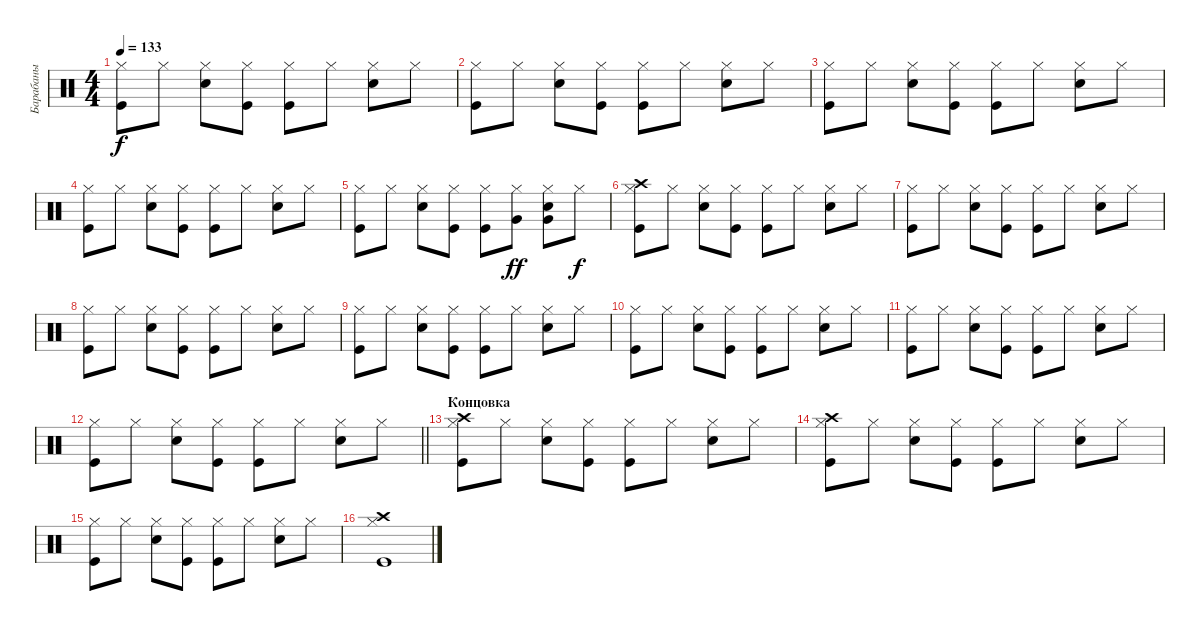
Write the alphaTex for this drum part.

\track ("Барабаны" "Барабаны") {instrument percussion}
\staff {score}
\articulation defaults
\ts (4 4)
\tempo 133
\clef neutral
\ks c
("Kick (hit)" "Hi-Hat (closed)").8{dy f} "Hi-Hat (closed)".8 ("Snare (hit) 2" "Hi-Hat (closed)").8 ("Kick (hit)" "Hi-Hat (closed)").8 ("Kick (hit)" "Hi-Hat (closed)").8 "Hi-Hat (closed)".8 ("Snare (hit) 2" "Hi-Hat (closed)").8 "Hi-Hat (closed)".8 |
("Kick (hit)" "Hi-Hat (closed)").8 "Hi-Hat (closed)".8 ("Snare (hit) 2" "Hi-Hat (closed)").8 ("Kick (hit)" "Hi-Hat (closed)").8 ("Kick (hit)" "Hi-Hat (closed)").8 "Hi-Hat (closed)".8 ("Snare (hit) 2" "Hi-Hat (closed)").8 "Hi-Hat (closed)".8 |
("Kick (hit)" "Hi-Hat (closed)").8 "Hi-Hat (closed)".8 ("Snare (hit) 2" "Hi-Hat (closed)").8 ("Kick (hit)" "Hi-Hat (closed)").8 ("Kick (hit)" "Hi-Hat (closed)").8 "Hi-Hat (closed)".8 ("Snare (hit) 2" "Hi-Hat (closed)").8 "Hi-Hat (closed)".8 |
("Kick (hit)" "Hi-Hat (closed)").8 "Hi-Hat (closed)".8 ("Snare (hit) 2" "Hi-Hat (closed)").8 ("Kick (hit)" "Hi-Hat (closed)").8 ("Kick (hit)" "Hi-Hat (closed)").8 "Hi-Hat (closed)".8 ("Snare (hit) 2" "Hi-Hat (closed)").8 "Hi-Hat (closed)".8 |
("Kick (hit)" "Hi-Hat (closed)").8 "Hi-Hat (closed)".8 ("Snare (hit) 2" "Hi-Hat (closed)").8 ("Kick (hit)" "Hi-Hat (closed)").8 ("Kick (hit)" "Hi-Hat (closed)").8 ("Hi-Hat (closed)" "Very Low Tom (hit)").8{dy ff} ("Snare (hit) 2" "Hi-Hat (closed)" "Very Low Tom (hit)").8 "Hi-Hat (closed)".8{dy f} |
("Kick (hit)" "Hi-Hat (closed)" "Crash high (hit)").8 "Hi-Hat (closed)".8 ("Snare (hit) 2" "Hi-Hat (closed)").8 ("Kick (hit)" "Hi-Hat (closed)").8 ("Kick (hit)" "Hi-Hat (closed)").8 "Hi-Hat (closed)".8 ("Snare (hit) 2" "Hi-Hat (closed)").8 "Hi-Hat (closed)".8 |
("Kick (hit)" "Hi-Hat (closed)").8 "Hi-Hat (closed)".8 ("Snare (hit) 2" "Hi-Hat (closed)").8 ("Kick (hit)" "Hi-Hat (closed)").8 ("Kick (hit)" "Hi-Hat (closed)").8 "Hi-Hat (closed)".8 ("Snare (hit) 2" "Hi-Hat (closed)").8 "Hi-Hat (closed)".8 |
("Kick (hit)" "Hi-Hat (closed)").8 "Hi-Hat (closed)".8 ("Snare (hit) 2" "Hi-Hat (closed)").8 ("Kick (hit)" "Hi-Hat (closed)").8 ("Kick (hit)" "Hi-Hat (closed)").8 "Hi-Hat (closed)".8 ("Snare (hit) 2" "Hi-Hat (closed)").8 "Hi-Hat (closed)".8 |
("Kick (hit)" "Hi-Hat (closed)").8 "Hi-Hat (closed)".8 ("Snare (hit) 2" "Hi-Hat (closed)").8 ("Kick (hit)" "Hi-Hat (closed)").8 ("Kick (hit)" "Hi-Hat (closed)").8 "Hi-Hat (closed)".8 ("Snare (hit) 2" "Hi-Hat (closed)").8 "Hi-Hat (closed)".8 |
("Kick (hit)" "Hi-Hat (closed)").8 "Hi-Hat (closed)".8 ("Snare (hit) 2" "Hi-Hat (closed)").8 ("Kick (hit)" "Hi-Hat (closed)").8 ("Kick (hit)" "Hi-Hat (closed)").8 "Hi-Hat (closed)".8 ("Snare (hit) 2" "Hi-Hat (closed)").8 "Hi-Hat (closed)".8 |
("Kick (hit)" "Hi-Hat (closed)").8 "Hi-Hat (closed)".8 ("Snare (hit) 2" "Hi-Hat (closed)").8 ("Kick (hit)" "Hi-Hat (closed)").8 ("Kick (hit)" "Hi-Hat (closed)").8 "Hi-Hat (closed)".8 ("Snare (hit) 2" "Hi-Hat (closed)").8 "Hi-Hat (closed)".8 |
\barLineRight lightlight
("Kick (hit)" "Hi-Hat (closed)").8 "Hi-Hat (closed)".8 ("Snare (hit) 2" "Hi-Hat (closed)").8 ("Kick (hit)" "Hi-Hat (closed)").8 ("Kick (hit)" "Hi-Hat (closed)").8 "Hi-Hat (closed)".8 ("Snare (hit) 2" "Hi-Hat (closed)").8 "Hi-Hat (closed)".8 |
\section ("" "Концовка")
("Kick (hit)" "Hi-Hat (closed)" "Crash high (hit)").8 "Hi-Hat (closed)".8 ("Snare (hit) 2" "Hi-Hat (closed)").8 ("Kick (hit)" "Hi-Hat (closed)").8 ("Kick (hit)" "Hi-Hat (closed)").8 "Hi-Hat (closed)".8 ("Snare (hit) 2" "Hi-Hat (closed)").8 "Hi-Hat (closed)".8 |
("Kick (hit)" "Hi-Hat (closed)" "Crash high (hit)").8 "Hi-Hat (closed)".8 ("Snare (hit) 2" "Hi-Hat (closed)").8 ("Kick (hit)" "Hi-Hat (closed)").8 ("Kick (hit)" "Hi-Hat (closed)").8 "Hi-Hat (closed)".8 ("Snare (hit) 2" "Hi-Hat (closed)").8 "Hi-Hat (closed)".8 |
("Kick (hit)" "Hi-Hat (closed)").8 "Hi-Hat (closed)".8 ("Snare (hit) 2" "Hi-Hat (closed)").8 ("Kick (hit)" "Hi-Hat (closed)").8 ("Kick (hit)" "Hi-Hat (closed)").8 "Hi-Hat (closed)".8 ("Snare (hit) 2" "Hi-Hat (closed)").8 "Hi-Hat (closed)".8 |
("Kick (hit)" "Hi-Hat (closed)" "Crash high (hit)").1
